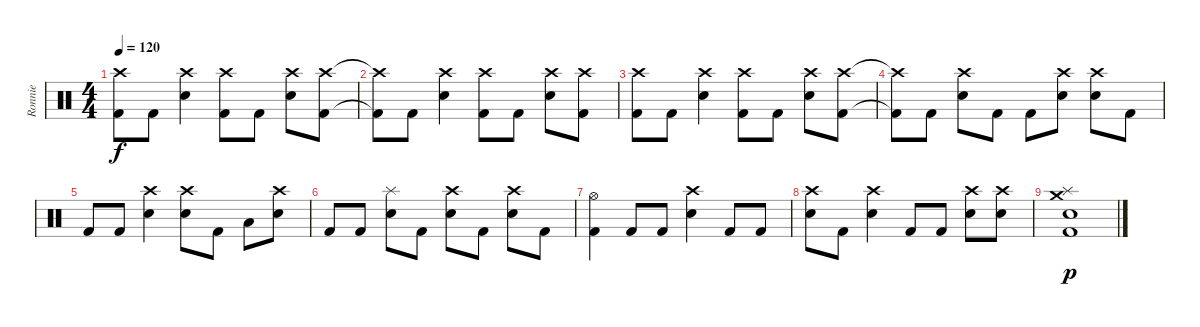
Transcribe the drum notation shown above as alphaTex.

\track ("Ronnie" "Ronnie") {instrument percussion}
\staff {score}
\articulation defaults
\ts (4 4)
\tempo 120
\clef neutral
\ks c
("Crash high (hit)" "Kick (hit) 2").8{dy f} "Kick (hit) 2".8 ("Crash high (hit)" "Snare (hit) 2").4 ("Crash high (hit)" "Kick (hit) 2").8 "Kick (hit) 2".8 ("Crash high (hit)" "Snare (hit) 2").8 ("Crash high (hit)" "Kick (hit) 2").8 |
("Crash high (hit)"{t} "Kick (hit) 2"{t}).8 "Kick (hit) 2".8 ("Crash high (hit)" "Snare (hit) 2").4 ("Crash high (hit)" "Kick (hit) 2").8 "Kick (hit) 2".8 ("Crash high (hit)" "Snare (hit) 2").8 ("Crash high (hit)" "Kick (hit) 2").8 |
("Crash high (hit)" "Kick (hit) 2").8 "Kick (hit) 2".8 ("Crash high (hit)" "Snare (hit) 2").4 ("Crash high (hit)" "Kick (hit) 2").8 "Kick (hit) 2".8 ("Crash high (hit)" "Snare (hit) 2").8 ("Crash high (hit)" "Kick (hit) 2").8 |
("Crash high (hit)"{t} "Kick (hit) 2"{t}).8 "Kick (hit) 2".8 ("Crash high (hit)" "Snare (hit) 2").8 "Kick (hit) 2".8 "Kick (hit) 2".8 ("Crash high (hit)" "Snare (hit) 2").8 ("Crash high (hit)" "Snare (hit) 2").8 "Kick (hit) 2".8 |
"Kick (hit) 2".8 "Kick (hit) 2".8 ("Crash high (hit)" "Snare (hit) 2").4 ("Crash high (hit)" "Snare (hit) 2").8 "Kick (hit) 2".8 "Low Floor Tom (hit)".8 ("Crash high (hit)" "Snare (hit) 2").8 |
"Kick (hit) 2".8 "Kick (hit) 2".8 ("Splash (hit)" "Snare (hit) 2").8 "Kick (hit) 2".8 ("Crash high (hit)" "Snare (hit) 2").8 "Kick (hit) 2".8 ("Crash high (hit)" "Snare (hit) 2").8 "Kick (hit) 2".8 |
("Hi-Hat (open)" "Kick (hit) 2").4 "Kick (hit) 2".8 "Kick (hit) 2".8 ("Crash high (hit)" "Snare (hit) 2").4 "Kick (hit) 2".8 "Kick (hit) 2".8 |
("Crash high (hit)" "Snare (hit) 2").8 "Kick (hit) 2".8 ("Crash high (hit)" "Snare (hit) 2").4 "Kick (hit) 2".8 "Kick (hit) 2".8 ("Crash high (hit)" "Snare (hit) 2").8 ("Crash high (hit)" "Snare (hit) 2").8 |
("Crash medium (hit)" "Snare (hit) 2" "Kick (hit) 2" "Splash (hit)").1{dy p}
